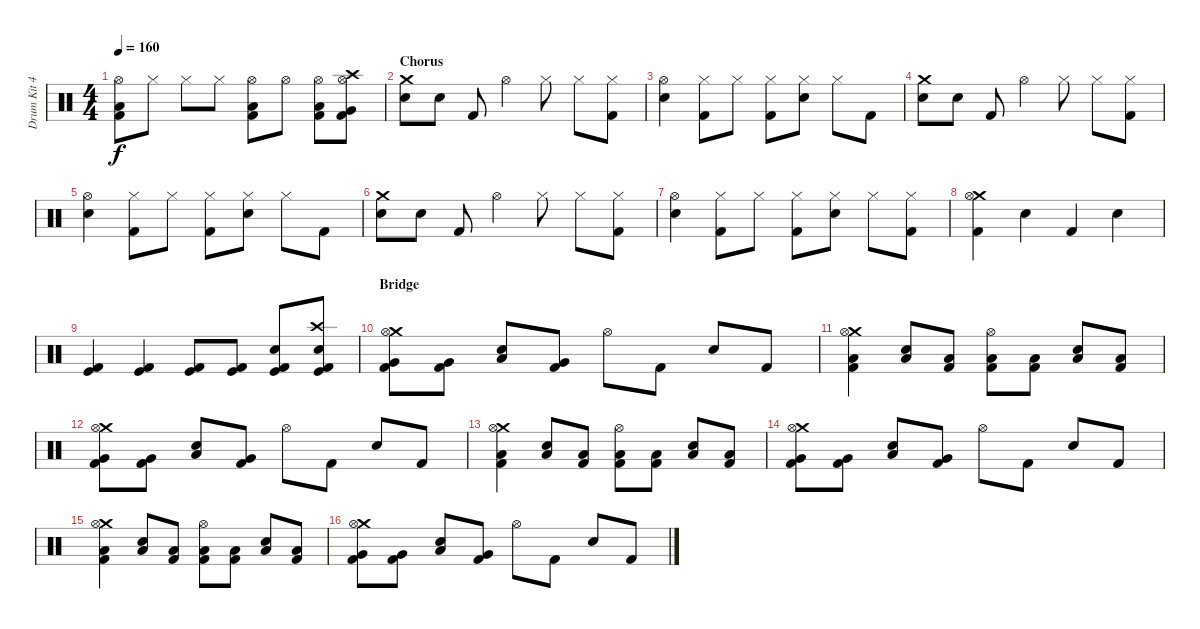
\track ("Drum Kit 42" "Drum Kit 4") {instrument percussion}
\staff {score}
\articulation defaults
\ts (4 4)
\tempo 160
\clef neutral
\ks c
("Hi-Hat (open)" "Low Tom (hit)" "Kick (hit) 2").8{dy f} "Hi-Hat (closed)".8 "Hi-Hat (closed)".8 "Hi-Hat (closed)".8 ("Hi-Hat (open)" "Low Tom (hit)" "Kick (hit) 2").8 "Hi-Hat (open)".8 ("Hi-Hat (open)" "Low Tom (hit)" "Kick (hit) 2").8 ("Crash high (hit)" "Hi-Hat (open)" "Very Low Tom (hit)" "Kick (hit) 2").8 |
\section ("" "Chorus")
("Crash medium (hit)" "Snare (hit) 2").8 "Snare (hit) 2".8 "Kick (hit) 2".8 "Hi-Hat (open)".4 "Hi-Hat (closed)".8 "Hi-Hat (closed)".8 ("Hi-Hat (closed)" "Kick (hit) 2").8 |
("Hi-Hat (open)" "Snare (hit) 2").4 ("Hi-Hat (closed)" "Kick (hit) 2").8 "Hi-Hat (closed)".8 ("Hi-Hat (closed)" "Kick (hit) 2").8 ("Hi-Hat (closed)" "Snare (hit) 2").8 "Hi-Hat (closed)".8 "Kick (hit) 2".8 |
("Crash medium (hit)" "Snare (hit) 2").8 "Snare (hit) 2".8 "Kick (hit) 2".8 "Hi-Hat (open)".4 "Hi-Hat (closed)".8 "Hi-Hat (closed)".8 ("Hi-Hat (closed)" "Kick (hit) 2").8 |
("Hi-Hat (open)" "Snare (hit) 2").4 ("Hi-Hat (closed)" "Kick (hit) 2").8 "Hi-Hat (closed)".8 ("Hi-Hat (closed)" "Kick (hit) 2").8 ("Hi-Hat (closed)" "Snare (hit) 2").8 "Hi-Hat (closed)".8 "Kick (hit) 2".8 |
("Crash medium (hit)" "Snare (hit) 2").8 "Snare (hit) 2".8 "Kick (hit) 2".8 "Hi-Hat (open)".4 "Hi-Hat (closed)".8 "Hi-Hat (closed)".8 ("Hi-Hat (closed)" "Kick (hit) 2").8 |
("Hi-Hat (open)" "Snare (hit) 2").4 ("Hi-Hat (closed)" "Kick (hit) 2").8 "Hi-Hat (closed)".8 ("Hi-Hat (closed)" "Kick (hit) 2").8 ("Hi-Hat (closed)" "Snare (hit) 2").8 "Hi-Hat (closed)".8 ("Hi-Hat (closed)" "Kick (hit) 2").8 |
("Crash medium (hit)" "Hi-Hat (open)" "Kick (hit) 2").4 "Snare (hit) 2".4 "Kick (hit) 2".4 "Snare (hit) 2".4 |
("Kick (hit)" "Kick (hit) 2").4 ("Kick (hit)" "Kick (hit) 2").4 ("Kick (hit)" "Kick (hit) 2").8 ("Kick (hit)" "Kick (hit) 2").8 ("Snare (hit) 2" "Kick (hit)" "Kick (hit) 2").8 ("Crash high (hit)" "Snare (hit) 2" "Kick (hit)" "Kick (hit) 2").8 |
\section ("" "Bridge")
("Crash medium (hit)" "Hi-Hat (open)" "Very Low Tom (hit)" "Kick (hit) 2").8 ("Very Low Tom (hit)" "Kick (hit) 2").8 ("Low Tom (hit)" "Snare (hit) 2").8 ("Very Low Tom (hit)" "Kick (hit) 2").8 "Hi-Hat (open)".8 "Kick (hit) 2".8 "Snare (hit) 2".8 "Kick (hit) 2".8 |
("Crash medium (hit)" "Hi-Hat (open)" "Low Floor Tom (hit)" "Kick (hit) 2").4 ("Low Floor Tom (hit)" "Snare (hit) 2").8 ("Low Floor Tom (hit)" "Kick (hit) 2").8 ("Hi-Hat (open)" "Low Floor Tom (hit)" "Kick (hit) 2").8 ("Low Floor Tom (hit)" "Kick (hit) 2").8 ("Low Tom (hit)" "Snare (hit) 2").8 ("Low Tom (hit)" "Kick (hit) 2").8 |
("Crash medium (hit)" "Hi-Hat (open)" "Very Low Tom (hit)" "Kick (hit) 2").8 ("Very Low Tom (hit)" "Kick (hit) 2").8 ("Low Tom (hit)" "Snare (hit) 2").8 ("Very Low Tom (hit)" "Kick (hit) 2").8 "Hi-Hat (open)".8 "Kick (hit) 2".8 "Snare (hit) 2".8 "Kick (hit) 2".8 |
("Crash medium (hit)" "Hi-Hat (open)" "Low Floor Tom (hit)" "Kick (hit) 2").4 ("Low Floor Tom (hit)" "Snare (hit) 2").8 ("Low Floor Tom (hit)" "Kick (hit) 2").8 ("Hi-Hat (open)" "Low Floor Tom (hit)" "Kick (hit) 2").8 ("Low Floor Tom (hit)" "Kick (hit) 2").8 ("Low Tom (hit)" "Snare (hit) 2").8 ("Low Tom (hit)" "Kick (hit) 2").8 |
("Crash medium (hit)" "Hi-Hat (open)" "Very Low Tom (hit)" "Kick (hit) 2").8 ("Very Low Tom (hit)" "Kick (hit) 2").8 ("Low Tom (hit)" "Snare (hit) 2").8 ("Very Low Tom (hit)" "Kick (hit) 2").8 "Hi-Hat (open)".8 "Kick (hit) 2".8 "Snare (hit) 2".8 "Kick (hit) 2".8 |
("Crash medium (hit)" "Hi-Hat (open)" "Low Floor Tom (hit)" "Kick (hit) 2").4 ("Low Floor Tom (hit)" "Snare (hit) 2").8 ("Low Floor Tom (hit)" "Kick (hit) 2").8 ("Hi-Hat (open)" "Low Floor Tom (hit)" "Kick (hit) 2").8 ("Low Floor Tom (hit)" "Kick (hit) 2").8 ("Low Tom (hit)" "Snare (hit) 2").8 ("Low Tom (hit)" "Kick (hit) 2").8 |
("Crash medium (hit)" "Hi-Hat (open)" "Very Low Tom (hit)" "Kick (hit) 2").8 ("Very Low Tom (hit)" "Kick (hit) 2").8 ("Low Tom (hit)" "Snare (hit) 2").8 ("Very Low Tom (hit)" "Kick (hit) 2").8 "Hi-Hat (open)".8 "Kick (hit) 2".8 "Snare (hit) 2".8 "Kick (hit) 2".8
